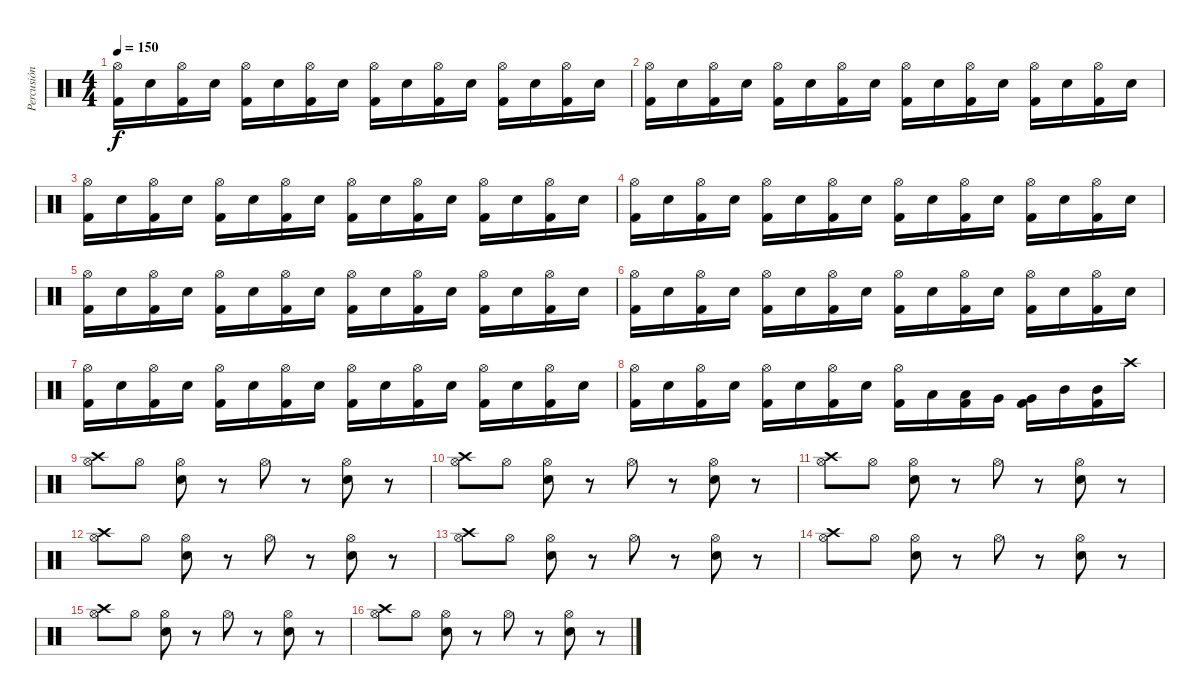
\track ("Percusión" "Percusión") {instrument percussion}
\staff {score}
\articulation defaults
\ts (4 4)
\tempo 150
\clef neutral
\ks c
("Hi-Hat (open)" "Kick (hit) 2").16{dy f} "Snare (hit) 2".16 ("Hi-Hat (open)" "Kick (hit) 2").16 "Snare (hit) 2".16 ("Hi-Hat (open)" "Kick (hit) 2").16 "Snare (hit) 2".16 ("Hi-Hat (open)" "Kick (hit) 2").16 "Snare (hit) 2".16 ("Hi-Hat (open)" "Kick (hit) 2").16 "Snare (hit) 2".16 ("Hi-Hat (open)" "Kick (hit) 2").16 "Snare (hit) 2".16 ("Hi-Hat (open)" "Kick (hit) 2").16 "Snare (hit) 2".16 ("Hi-Hat (open)" "Kick (hit) 2").16 "Snare (hit) 2".16 |
("Hi-Hat (open)" "Kick (hit) 2").16 "Snare (hit) 2".16 ("Hi-Hat (open)" "Kick (hit) 2").16 "Snare (hit) 2".16 ("Hi-Hat (open)" "Kick (hit) 2").16 "Snare (hit) 2".16 ("Hi-Hat (open)" "Kick (hit) 2").16 "Snare (hit) 2".16 ("Hi-Hat (open)" "Kick (hit) 2").16 "Snare (hit) 2".16 ("Hi-Hat (open)" "Kick (hit) 2").16 "Snare (hit) 2".16 ("Hi-Hat (open)" "Kick (hit) 2").16 "Snare (hit) 2".16 ("Hi-Hat (open)" "Kick (hit) 2").16 "Snare (hit) 2".16 |
("Hi-Hat (open)" "Kick (hit) 2").16 "Snare (hit) 2".16 ("Hi-Hat (open)" "Kick (hit) 2").16 "Snare (hit) 2".16 ("Hi-Hat (open)" "Kick (hit) 2").16 "Snare (hit) 2".16 ("Hi-Hat (open)" "Kick (hit) 2").16 "Snare (hit) 2".16 ("Hi-Hat (open)" "Kick (hit) 2").16 "Snare (hit) 2".16 ("Hi-Hat (open)" "Kick (hit) 2").16 "Snare (hit) 2".16 ("Hi-Hat (open)" "Kick (hit) 2").16 "Snare (hit) 2".16 ("Hi-Hat (open)" "Kick (hit) 2").16 "Snare (hit) 2".16 |
("Hi-Hat (open)" "Kick (hit) 2").16 "Snare (hit) 2".16 ("Hi-Hat (open)" "Kick (hit) 2").16 "Snare (hit) 2".16 ("Hi-Hat (open)" "Kick (hit) 2").16 "Snare (hit) 2".16 ("Hi-Hat (open)" "Kick (hit) 2").16 "Snare (hit) 2".16 ("Hi-Hat (open)" "Kick (hit) 2").16 "Snare (hit) 2".16 ("Hi-Hat (open)" "Kick (hit) 2").16 "Snare (hit) 2".16 ("Hi-Hat (open)" "Kick (hit) 2").16 "Snare (hit) 2".16 ("Hi-Hat (open)" "Kick (hit) 2").16 "Snare (hit) 2".16 |
("Hi-Hat (open)" "Kick (hit) 2").16 "Snare (hit) 2".16 ("Hi-Hat (open)" "Kick (hit) 2").16 "Snare (hit) 2".16 ("Hi-Hat (open)" "Kick (hit) 2").16 "Snare (hit) 2".16 ("Hi-Hat (open)" "Kick (hit) 2").16 "Snare (hit) 2".16 ("Hi-Hat (open)" "Kick (hit) 2").16 "Snare (hit) 2".16 ("Hi-Hat (open)" "Kick (hit) 2").16 "Snare (hit) 2".16 ("Hi-Hat (open)" "Kick (hit) 2").16 "Snare (hit) 2".16 ("Hi-Hat (open)" "Kick (hit) 2").16 "Snare (hit) 2".16 |
("Hi-Hat (open)" "Kick (hit) 2").16 "Snare (hit) 2".16 ("Hi-Hat (open)" "Kick (hit) 2").16 "Snare (hit) 2".16 ("Hi-Hat (open)" "Kick (hit) 2").16 "Snare (hit) 2".16 ("Hi-Hat (open)" "Kick (hit) 2").16 "Snare (hit) 2".16 ("Hi-Hat (open)" "Kick (hit) 2").16 "Snare (hit) 2".16 ("Hi-Hat (open)" "Kick (hit) 2").16 "Snare (hit) 2".16 ("Hi-Hat (open)" "Kick (hit) 2").16 "Snare (hit) 2".16 ("Hi-Hat (open)" "Kick (hit) 2").16 "Snare (hit) 2".16 |
("Hi-Hat (open)" "Kick (hit) 2").16 "Snare (hit) 2".16 ("Hi-Hat (open)" "Kick (hit) 2").16 "Snare (hit) 2".16 ("Hi-Hat (open)" "Kick (hit) 2").16 "Snare (hit) 2".16 ("Hi-Hat (open)" "Kick (hit) 2").16 "Snare (hit) 2".16 ("Hi-Hat (open)" "Kick (hit) 2").16 "Snare (hit) 2".16 ("Hi-Hat (open)" "Kick (hit) 2").16 "Snare (hit) 2".16 ("Hi-Hat (open)" "Kick (hit) 2").16 "Snare (hit) 2".16 ("Hi-Hat (open)" "Kick (hit) 2").16 "Snare (hit) 2".16 |
("Hi-Hat (open)" "Kick (hit) 2").16 "Snare (hit) 2".16 ("Hi-Hat (open)" "Kick (hit) 2").16 "Snare (hit) 2".16 ("Hi-Hat (open)" "Kick (hit) 2").16 "Snare (hit) 2".16 ("Hi-Hat (open)" "Kick (hit) 2").16 "Snare (hit) 2".16 ("Hi-Hat (open)" "Kick (hit) 2").16 "Low Floor Tom (hit)".16 ("Low Floor Tom (hit)" "Kick (hit) 2").16 "Very Low Tom (hit)".16 ("Very Low Tom (hit)" "Kick (hit) 2").16 "Mid Tom (hit)".16 ("Mid Tom (hit)" "Kick (hit) 2").16 "Crash high (hit)".16 |
("Crash high (hit)" "Hi-Hat (open)").8 "Hi-Hat (open)".8 ("Hi-Hat (open)" "Snare (hit) 2").8 r.8 "Hi-Hat (open)".8 r.8 ("Hi-Hat (open)" "Snare (hit) 2").8 r.8 |
("Crash high (hit)" "Hi-Hat (open)").8 "Hi-Hat (open)".8 ("Hi-Hat (open)" "Snare (hit) 2").8 r.8 "Hi-Hat (open)".8 r.8 ("Hi-Hat (open)" "Snare (hit) 2").8 r.8 |
("Crash high (hit)" "Hi-Hat (open)").8 "Hi-Hat (open)".8 ("Hi-Hat (open)" "Snare (hit) 2").8 r.8 "Hi-Hat (open)".8 r.8 ("Hi-Hat (open)" "Snare (hit) 2").8 r.8 |
("Crash high (hit)" "Hi-Hat (open)").8 "Hi-Hat (open)".8 ("Hi-Hat (open)" "Snare (hit) 2").8 r.8 "Hi-Hat (open)".8 r.8 ("Hi-Hat (open)" "Snare (hit) 2").8 r.8 |
("Crash high (hit)" "Hi-Hat (open)").8 "Hi-Hat (open)".8 ("Hi-Hat (open)" "Snare (hit) 2").8 r.8 "Hi-Hat (open)".8 r.8 ("Hi-Hat (open)" "Snare (hit) 2").8 r.8 |
("Crash high (hit)" "Hi-Hat (open)").8 "Hi-Hat (open)".8 ("Hi-Hat (open)" "Snare (hit) 2").8 r.8 "Hi-Hat (open)".8 r.8 ("Hi-Hat (open)" "Snare (hit) 2").8 r.8 |
("Crash high (hit)" "Hi-Hat (open)").8 "Hi-Hat (open)".8 ("Hi-Hat (open)" "Snare (hit) 2").8 r.8 "Hi-Hat (open)".8 r.8 ("Hi-Hat (open)" "Snare (hit) 2").8 r.8 |
("Crash high (hit)" "Hi-Hat (open)").8 "Hi-Hat (open)".8 ("Hi-Hat (open)" "Snare (hit) 2").8 r.8 "Hi-Hat (open)".8 r.8 ("Hi-Hat (open)" "Snare (hit) 2").8 r.8
